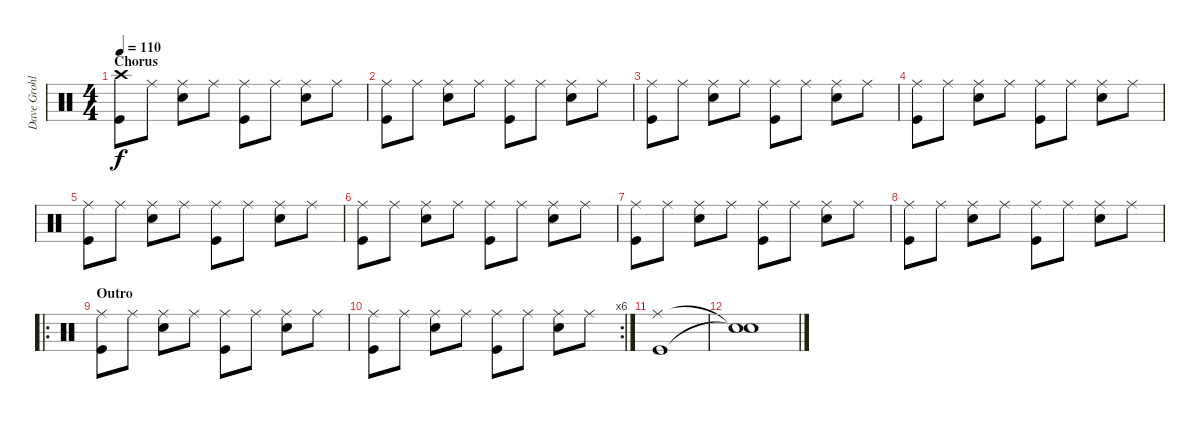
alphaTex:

\track ("Dave Grohl" "Dave Grohl") {instrument percussion}
\staff {score}
\articulation defaults
\ts (4 4)
\section ("" "Chorus")
\tempo 110
\clef neutral
\ks c
("Crash high (hit)" "Kick (hit)").8{dy f} "Ride (middle)".8 ("Ride (middle)" "Electric Snare (hit)").8 "Ride (middle)".8 ("Ride (middle)" "Kick (hit)").8 "Ride (middle)".8 ("Ride (middle)" "Electric Snare (hit)").8 "Ride (middle)".8 |
("Ride (middle)" "Kick (hit)").8 "Ride (middle)".8 ("Ride (middle)" "Electric Snare (hit)").8 "Ride (middle)".8 ("Ride (middle)" "Kick (hit)").8 "Ride (middle)".8 ("Ride (middle)" "Electric Snare (hit)").8 "Ride (middle)".8 |
("Ride (middle)" "Kick (hit)").8 "Ride (middle)".8 ("Ride (middle)" "Electric Snare (hit)").8 "Ride (middle)".8 ("Ride (middle)" "Kick (hit)").8 "Ride (middle)".8 ("Ride (middle)" "Electric Snare (hit)").8 "Ride (middle)".8 |
("Ride (middle)" "Kick (hit)").8 "Ride (middle)".8 ("Ride (middle)" "Electric Snare (hit)").8 "Ride (middle)".8 ("Ride (middle)" "Kick (hit)").8 "Ride (middle)".8 ("Ride (middle)" "Electric Snare (hit)").8 "Ride (middle)".8 |
("Ride (middle)" "Kick (hit)").8 "Ride (middle)".8 ("Ride (middle)" "Electric Snare (hit)").8 "Ride (middle)".8 ("Ride (middle)" "Kick (hit)").8 "Ride (middle)".8 ("Ride (middle)" "Electric Snare (hit)").8 "Ride (middle)".8 |
("Ride (middle)" "Kick (hit)").8 "Ride (middle)".8 ("Ride (middle)" "Electric Snare (hit)").8 "Ride (middle)".8 ("Ride (middle)" "Kick (hit)").8 "Ride (middle)".8 ("Ride (middle)" "Electric Snare (hit)").8 "Ride (middle)".8 |
("Ride (middle)" "Kick (hit)").8 "Ride (middle)".8 ("Ride (middle)" "Electric Snare (hit)").8 "Ride (middle)".8 ("Ride (middle)" "Kick (hit)").8 "Ride (middle)".8 ("Ride (middle)" "Electric Snare (hit)").8 "Ride (middle)".8 |
("Ride (middle)" "Kick (hit)").8 "Ride (middle)".8 ("Ride (middle)" "Electric Snare (hit)").8 "Ride (middle)".8 ("Ride (middle)" "Kick (hit)").8 "Ride (middle)".8 ("Ride (middle)" "Electric Snare (hit)").8 "Ride (middle)".8 |
\ro
\section ("" "Outro")
("Ride (middle)" "Kick (hit)").8 "Ride (middle)".8 ("Ride (middle)" "Electric Snare (hit)").8 "Ride (middle)".8 ("Ride (middle)" "Kick (hit)").8 "Ride (middle)".8 ("Ride (middle)" "Electric Snare (hit)").8 "Ride (middle)".8 |
\rc 6
("Ride (middle)" "Kick (hit)").8 "Ride (middle)".8 ("Ride (middle)" "Electric Snare (hit)").8 "Ride (middle)".8 ("Ride (middle)" "Kick (hit)").8 "Ride (middle)".8 ("Ride (middle)" "Electric Snare (hit)").8 "Ride (middle)".8 |
("Ride (middle)" "Kick (hit)").1 |
("Snare (hit)"{t} "Snare (hit)"{t}).1
